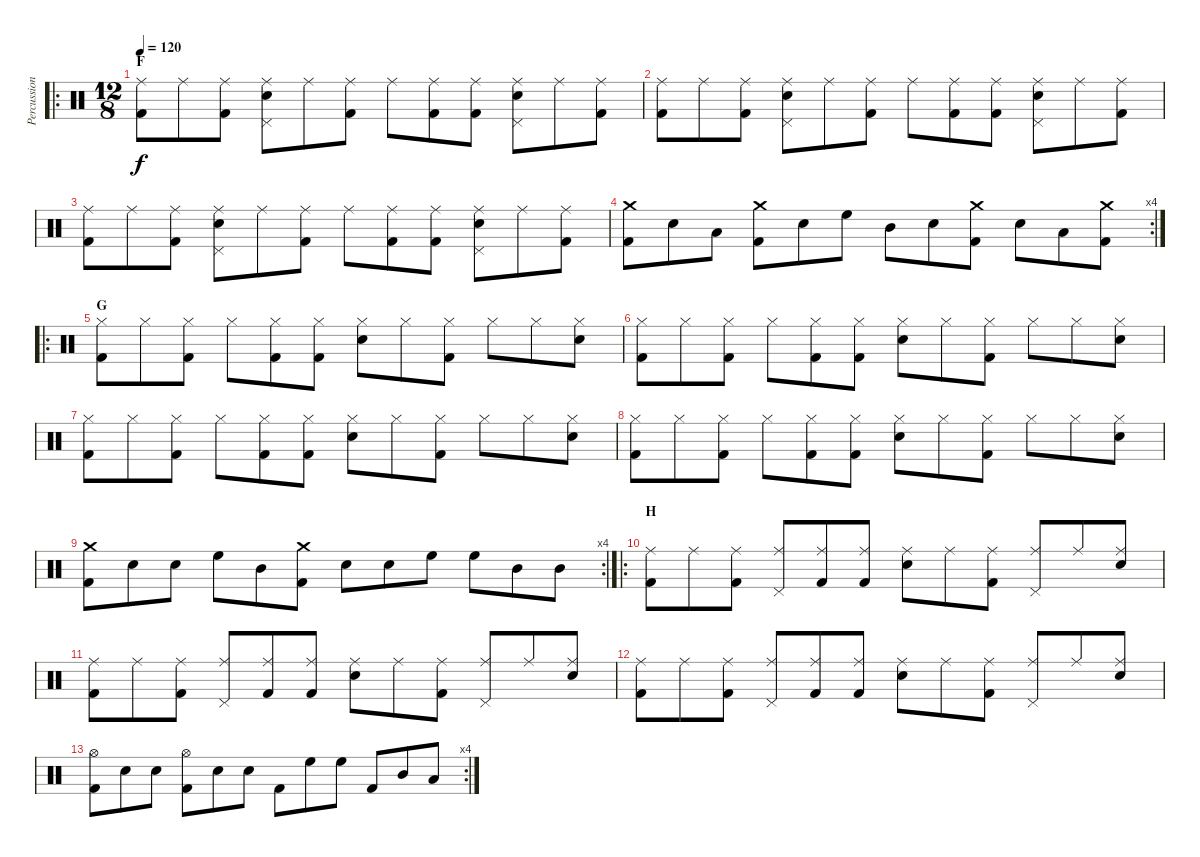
\track ("Percussioni" "Percussion") {instrument percussion}
\staff {score}
\articulation defaults
\ro
\ts (12 8)
\section ("" "F")
\tempo 120
\clef neutral
\ks c
("Ride (middle)" "Kick (hit) 2").8{dy f} "Ride (middle)".8 ("Ride (middle)" "Kick (hit) 2").8 ("Ride (middle)" "Pedal Hi-Hat (hit)" "Snare (hit) 2").8 "Ride (middle)".8 ("Ride (middle)" "Kick (hit) 2").8 "Ride (middle)".8 ("Ride (middle)" "Kick (hit) 2").8 ("Ride (middle)" "Kick (hit) 2").8 ("Ride (middle)" "Pedal Hi-Hat (hit)" "Snare (hit) 2").8 "Ride (middle)".8 ("Ride (middle)" "Kick (hit) 2").8 |
("Ride (middle)" "Kick (hit) 2").8 "Ride (middle)".8 ("Ride (middle)" "Kick (hit) 2").8 ("Ride (middle)" "Pedal Hi-Hat (hit)" "Snare (hit) 2").8 "Ride (middle)".8 ("Ride (middle)" "Kick (hit) 2").8 "Ride (middle)".8 ("Ride (middle)" "Kick (hit) 2").8 ("Ride (middle)" "Kick (hit) 2").8 ("Ride (middle)" "Pedal Hi-Hat (hit)" "Snare (hit) 2").8 "Ride (middle)".8 ("Ride (middle)" "Kick (hit) 2").8 |
("Ride (middle)" "Kick (hit) 2").8 "Ride (middle)".8 ("Ride (middle)" "Kick (hit) 2").8 ("Ride (middle)" "Pedal Hi-Hat (hit)" "Snare (hit) 2").8 "Ride (middle)".8 ("Ride (middle)" "Kick (hit) 2").8 "Ride (middle)".8 ("Ride (middle)" "Kick (hit) 2").8 ("Ride (middle)" "Kick (hit) 2").8 ("Ride (middle)" "Pedal Hi-Hat (hit)" "Snare (hit) 2").8 "Ride (middle)".8 ("Ride (middle)" "Kick (hit) 2").8 |
\rc 4
("Kick (hit) 2" "Crash medium (hit)").8 "Snare (hit) 2".8 "Low Floor Tom (hit)".8 ("Kick (hit) 2" "Crash medium (hit)").8 "Snare (hit) 2".8 "High Floor Tom (hit)".8 "Mid Tom (hit)".8 "Snare (hit) 2".8 ("Kick (hit) 2" "Crash medium (hit)").8 "Snare (hit) 2".8 "Low Floor Tom (hit)".8 ("Kick (hit) 2" "Crash medium (hit)").8 |
\ro
\section ("" "G")
("Hi-Hat (closed)" "Kick (hit) 2").8 "Hi-Hat (closed)".8 ("Hi-Hat (closed)" "Kick (hit) 2").8 "Hi-Hat (closed)".8 ("Hi-Hat (closed)" "Kick (hit) 2").8 ("Hi-Hat (closed)" "Kick (hit) 2").8 ("Hi-Hat (closed)" "Snare (hit) 2").8 "Hi-Hat (closed)".8 ("Hi-Hat (closed)" "Kick (hit) 2").8 "Hi-Hat (closed)".8 "Hi-Hat (closed)".8 ("Hi-Hat (closed)" "Snare (hit) 2").8 |
("Hi-Hat (closed)" "Kick (hit) 2").8 "Hi-Hat (closed)".8 ("Hi-Hat (closed)" "Kick (hit) 2").8 "Hi-Hat (closed)".8 ("Hi-Hat (closed)" "Kick (hit) 2").8 ("Hi-Hat (closed)" "Kick (hit) 2").8 ("Hi-Hat (closed)" "Snare (hit) 2").8 "Hi-Hat (closed)".8 ("Hi-Hat (closed)" "Kick (hit) 2").8 "Hi-Hat (closed)".8 "Hi-Hat (closed)".8 ("Hi-Hat (closed)" "Snare (hit) 2").8 |
("Hi-Hat (closed)" "Kick (hit) 2").8 "Hi-Hat (closed)".8 ("Hi-Hat (closed)" "Kick (hit) 2").8 "Hi-Hat (closed)".8 ("Hi-Hat (closed)" "Kick (hit) 2").8 ("Hi-Hat (closed)" "Kick (hit) 2").8 ("Hi-Hat (closed)" "Snare (hit) 2").8 "Hi-Hat (closed)".8 ("Hi-Hat (closed)" "Kick (hit) 2").8 "Hi-Hat (closed)".8 "Hi-Hat (closed)".8 ("Hi-Hat (closed)" "Snare (hit) 2").8 |
("Hi-Hat (closed)" "Kick (hit) 2").8 "Hi-Hat (closed)".8 ("Hi-Hat (closed)" "Kick (hit) 2").8 "Hi-Hat (closed)".8 ("Hi-Hat (closed)" "Kick (hit) 2").8 ("Hi-Hat (closed)" "Kick (hit) 2").8 ("Hi-Hat (closed)" "Snare (hit) 2").8 "Hi-Hat (closed)".8 ("Hi-Hat (closed)" "Kick (hit) 2").8 "Hi-Hat (closed)".8 "Hi-Hat (closed)".8 ("Hi-Hat (closed)" "Snare (hit) 2").8 |
\rc 4
("Kick (hit) 2" "Crash medium (hit)").8 "Snare (hit) 2".8 "Snare (hit) 2".8 "High Floor Tom (hit)".8 "Mid Tom (hit)".8 ("Kick (hit) 2" "Crash medium (hit)").8 "Snare (hit) 2".8 "Snare (hit) 2".8 "High Floor Tom (hit)".8 "High Floor Tom (hit)".8 "Mid Tom (hit)".8 "Mid Tom (hit)".8 |
\ro
\section ("" "H")
("Ride (middle)" "Kick (hit) 2").8 "Ride (middle)".8 ("Ride (middle)" "Kick (hit) 2").8 ("Ride (middle)" "Pedal Hi-Hat (hit)").8 ("Ride (middle)" "Kick (hit) 2").8 ("Ride (middle)" "Kick (hit) 2").8 ("Ride (middle)" "Snare (hit) 2").8 "Ride (middle)".8 ("Ride (middle)" "Kick (hit) 2").8 ("Ride (middle)" "Pedal Hi-Hat (hit)").8 "Ride (middle)".8 ("Ride (middle)" "Snare (hit) 2").8 |
("Ride (middle)" "Kick (hit) 2").8 "Ride (middle)".8 ("Ride (middle)" "Kick (hit) 2").8 ("Ride (middle)" "Pedal Hi-Hat (hit)").8 ("Ride (middle)" "Kick (hit) 2").8 ("Ride (middle)" "Kick (hit) 2").8 ("Ride (middle)" "Snare (hit) 2").8 "Ride (middle)".8 ("Ride (middle)" "Kick (hit) 2").8 ("Ride (middle)" "Pedal Hi-Hat (hit)").8 "Ride (middle)".8 ("Ride (middle)" "Snare (hit) 2").8 |
("Ride (middle)" "Kick (hit) 2").8 "Ride (middle)".8 ("Ride (middle)" "Kick (hit) 2").8 ("Ride (middle)" "Pedal Hi-Hat (hit)").8 ("Ride (middle)" "Kick (hit) 2").8 ("Ride (middle)" "Kick (hit) 2").8 ("Ride (middle)" "Snare (hit) 2").8 "Ride (middle)".8 ("Ride (middle)" "Kick (hit) 2").8 ("Ride (middle)" "Pedal Hi-Hat (hit)").8 "Ride (middle)".8 ("Ride (middle)" "Snare (hit) 2").8 |
\rc 4
("Kick (hit) 2" "Hi-Hat (open)").8 "Snare (hit) 2".8 "Snare (hit) 2".8 ("Kick (hit) 2" "Hi-Hat (open)").8 "Snare (hit) 2".8 "Snare (hit) 2".8 "Kick (hit) 2".8 "High Floor Tom (hit)".8 "High Floor Tom (hit)".8 "Kick (hit) 2".8 "Mid Tom (hit)".8 "Low Floor Tom (hit)".8
